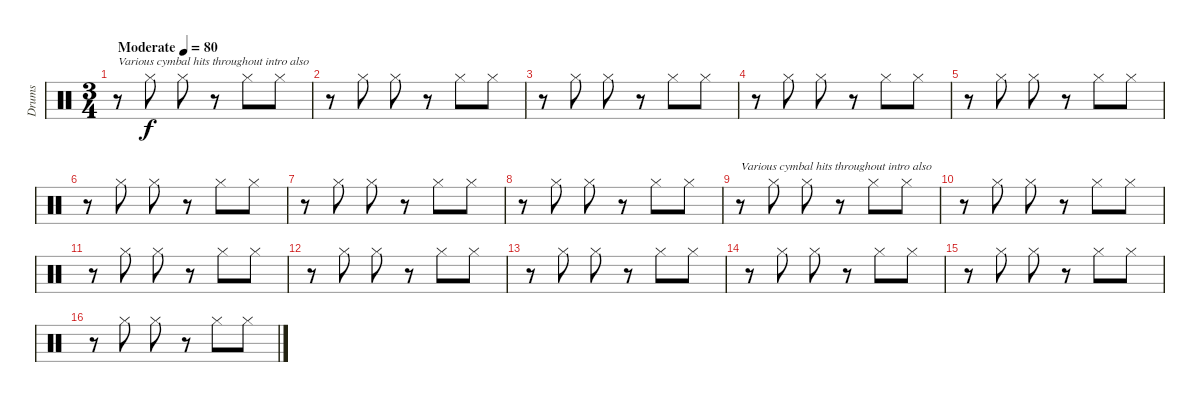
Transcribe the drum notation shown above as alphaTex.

\track ("Drums" "Drums") {instrument percussion}
\staff {score}
\articulation defaults
\ts (3 4)
\tempo (80 "Moderate")
\clef neutral
\ks c
r.8{txt "Various cymbal hits throughout intro also" dy f} "Hi-Hat (closed)".8 "Hi-Hat (closed)".8 r.8 "Hi-Hat (closed)".8 "Hi-Hat (closed)".8 |
r.8 "Hi-Hat (closed)".8 "Hi-Hat (closed)".8 r.8 "Hi-Hat (closed)".8 "Hi-Hat (closed)".8 |
r.8 "Hi-Hat (closed)".8 "Hi-Hat (closed)".8 r.8 "Hi-Hat (closed)".8 "Hi-Hat (closed)".8 |
r.8 "Hi-Hat (closed)".8 "Hi-Hat (closed)".8 r.8 "Hi-Hat (closed)".8 "Hi-Hat (closed)".8 |
r.8 "Hi-Hat (closed)".8 "Hi-Hat (closed)".8 r.8 "Hi-Hat (closed)".8 "Hi-Hat (closed)".8 |
r.8 "Hi-Hat (closed)".8 "Hi-Hat (closed)".8 r.8 "Hi-Hat (closed)".8 "Hi-Hat (closed)".8 |
r.8 "Hi-Hat (closed)".8 "Hi-Hat (closed)".8 r.8 "Hi-Hat (closed)".8 "Hi-Hat (closed)".8 |
r.8 "Hi-Hat (closed)".8 "Hi-Hat (closed)".8 r.8 "Hi-Hat (closed)".8 "Hi-Hat (closed)".8 |
r.8{txt "Various cymbal hits throughout intro also"} "Hi-Hat (closed)".8 "Hi-Hat (closed)".8 r.8 "Hi-Hat (closed)".8 "Hi-Hat (closed)".8 |
r.8 "Hi-Hat (closed)".8 "Hi-Hat (closed)".8 r.8 "Hi-Hat (closed)".8 "Hi-Hat (closed)".8 |
r.8 "Hi-Hat (closed)".8 "Hi-Hat (closed)".8 r.8 "Hi-Hat (closed)".8 "Hi-Hat (closed)".8 |
r.8 "Hi-Hat (closed)".8 "Hi-Hat (closed)".8 r.8 "Hi-Hat (closed)".8 "Hi-Hat (closed)".8 |
r.8 "Hi-Hat (closed)".8 "Hi-Hat (closed)".8 r.8 "Hi-Hat (closed)".8 "Hi-Hat (closed)".8 |
r.8 "Hi-Hat (closed)".8 "Hi-Hat (closed)".8 r.8 "Hi-Hat (closed)".8 "Hi-Hat (closed)".8 |
r.8 "Hi-Hat (closed)".8 "Hi-Hat (closed)".8 r.8 "Hi-Hat (closed)".8 "Hi-Hat (closed)".8 |
r.8 "Hi-Hat (closed)".8 "Hi-Hat (closed)".8 r.8 "Hi-Hat (closed)".8 "Hi-Hat (closed)".8
